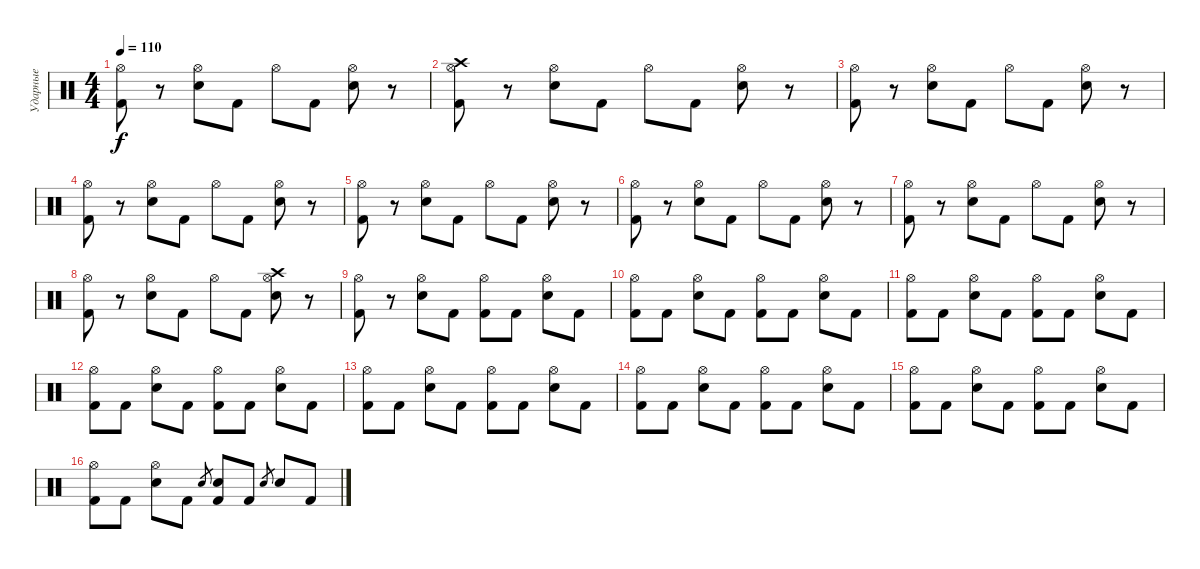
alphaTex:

\track ("Ударные" "Ударные") {instrument percussion}
\staff {score}
\articulation defaults
\ts (4 4)
\tempo 110
\clef neutral
\ks c
("Kick (hit) 2" "Hi-Hat (open)").8{dy f} r.8 ("Electric Snare (hit)" "Hi-Hat (open)").8 "Kick (hit) 2".8 "Hi-Hat (open)".8 "Kick (hit) 2".8 ("Electric Snare (hit)" "Hi-Hat (open)").8 r.8 |
("Crash high (hit)" "Kick (hit) 2" "Hi-Hat (open)").8 r.8 ("Electric Snare (hit)" "Hi-Hat (open)").8 "Kick (hit) 2".8 "Hi-Hat (open)".8 "Kick (hit) 2".8 ("Electric Snare (hit)" "Hi-Hat (open)").8 r.8 |
("Kick (hit) 2" "Hi-Hat (open)").8 r.8 ("Electric Snare (hit)" "Hi-Hat (open)").8 "Kick (hit) 2".8 "Hi-Hat (open)".8 "Kick (hit) 2".8 ("Electric Snare (hit)" "Hi-Hat (open)").8 r.8 |
("Kick (hit) 2" "Hi-Hat (open)").8 r.8 ("Electric Snare (hit)" "Hi-Hat (open)").8 "Kick (hit) 2".8 "Hi-Hat (open)".8 "Kick (hit) 2".8 ("Electric Snare (hit)" "Hi-Hat (open)").8 r.8 |
("Kick (hit) 2" "Hi-Hat (open)").8 r.8 ("Electric Snare (hit)" "Hi-Hat (open)").8 "Kick (hit) 2".8 "Hi-Hat (open)".8 "Kick (hit) 2".8 ("Electric Snare (hit)" "Hi-Hat (open)").8 r.8 |
("Kick (hit) 2" "Hi-Hat (open)").8 r.8 ("Electric Snare (hit)" "Hi-Hat (open)").8 "Kick (hit) 2".8 "Hi-Hat (open)".8 "Kick (hit) 2".8 ("Electric Snare (hit)" "Hi-Hat (open)").8 r.8 |
("Kick (hit) 2" "Hi-Hat (open)").8 r.8 ("Electric Snare (hit)" "Hi-Hat (open)").8 "Kick (hit) 2".8 "Hi-Hat (open)".8 "Kick (hit) 2".8 ("Electric Snare (hit)" "Hi-Hat (open)").8 r.8 |
("Kick (hit) 2" "Hi-Hat (open)").8 r.8 ("Electric Snare (hit)" "Hi-Hat (open)").8 "Kick (hit) 2".8 "Hi-Hat (open)".8 "Kick (hit) 2".8 ("Electric Snare (hit)" "Crash high (hit)" "Hi-Hat (open)").8 r.8 |
("Kick (hit) 2" "Hi-Hat (open)").8 r.8 ("Electric Snare (hit)" "Hi-Hat (open)").8 "Kick (hit) 2".8 ("Kick (hit) 2" "Hi-Hat (open)").8 "Kick (hit) 2".8 ("Electric Snare (hit)" "Hi-Hat (open)").8 "Kick (hit) 2".8 |
("Kick (hit) 2" "Hi-Hat (open)").8 "Kick (hit) 2".8 ("Electric Snare (hit)" "Hi-Hat (open)").8 "Kick (hit) 2".8 ("Kick (hit) 2" "Hi-Hat (open)").8 "Kick (hit) 2".8 ("Electric Snare (hit)" "Hi-Hat (open)").8 "Kick (hit) 2".8 |
("Kick (hit) 2" "Hi-Hat (open)").8 "Kick (hit) 2".8 ("Electric Snare (hit)" "Hi-Hat (open)").8 "Kick (hit) 2".8 ("Kick (hit) 2" "Hi-Hat (open)").8 "Kick (hit) 2".8 ("Electric Snare (hit)" "Hi-Hat (open)").8 "Kick (hit) 2".8 |
("Kick (hit) 2" "Hi-Hat (open)").8 "Kick (hit) 2".8 ("Electric Snare (hit)" "Hi-Hat (open)").8 "Kick (hit) 2".8 ("Kick (hit) 2" "Hi-Hat (open)").8 "Kick (hit) 2".8 ("Electric Snare (hit)" "Hi-Hat (open)").8 "Kick (hit) 2".8 |
("Kick (hit) 2" "Hi-Hat (open)").8 "Kick (hit) 2".8 ("Electric Snare (hit)" "Hi-Hat (open)").8 "Kick (hit) 2".8 ("Kick (hit) 2" "Hi-Hat (open)").8 "Kick (hit) 2".8 ("Electric Snare (hit)" "Hi-Hat (open)").8 "Kick (hit) 2".8 |
("Kick (hit) 2" "Hi-Hat (open)").8 "Kick (hit) 2".8 ("Electric Snare (hit)" "Hi-Hat (open)").8 "Kick (hit) 2".8 ("Kick (hit) 2" "Hi-Hat (open)").8 "Kick (hit) 2".8 ("Electric Snare (hit)" "Hi-Hat (open)").8 "Kick (hit) 2".8 |
("Kick (hit) 2" "Hi-Hat (open)").8 "Kick (hit) 2".8 ("Electric Snare (hit)" "Hi-Hat (open)").8 "Kick (hit) 2".8 ("Kick (hit) 2" "Hi-Hat (open)").8 "Kick (hit) 2".8 ("Electric Snare (hit)" "Hi-Hat (open)").8 "Kick (hit) 2".8 |
("Kick (hit) 2" "Hi-Hat (open)").8 "Kick (hit) 2".8 ("Electric Snare (hit)" "Hi-Hat (open)").8 "Kick (hit) 2".8 "Electric Snare (hit)".8{gr} ("Kick (hit) 2" "Electric Snare (hit)").8 "Kick (hit) 2".8 "Electric Snare (hit)".8{gr} "Electric Snare (hit)".8 "Kick (hit) 2".8
